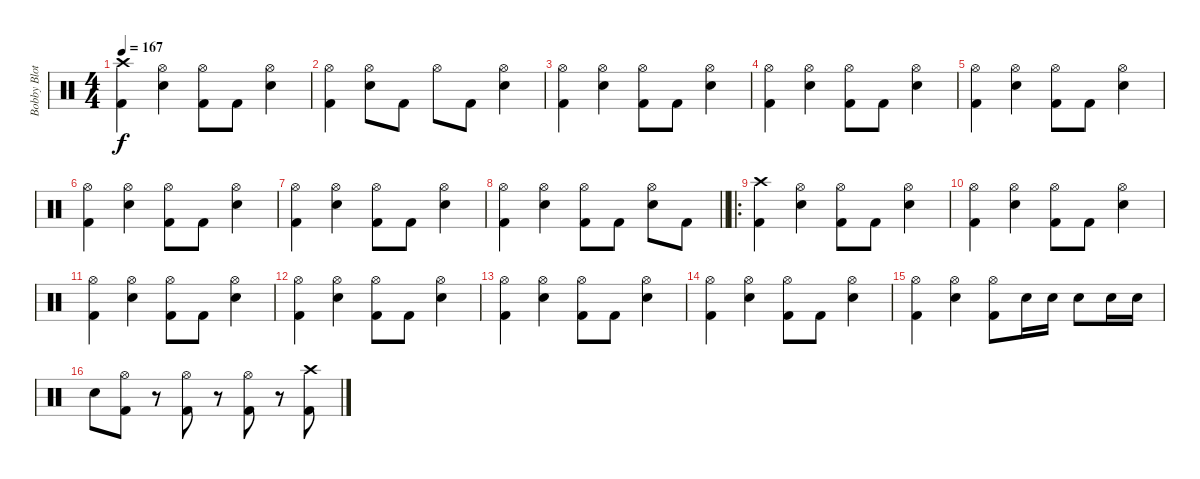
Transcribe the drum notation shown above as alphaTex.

\track ("Bobby Blotzer" "Bobby Blot") {instrument percussion}
\staff {score}
\articulation defaults
\ts (4 4)
\tempo 167
\clef neutral
\ks c
("Crash high (hit)" "Kick (hit) 2").4{dy f} ("Hi-Hat (open)" "Electric Snare (hit)").4 ("Hi-Hat (open)" "Kick (hit) 2").8 "Kick (hit) 2".8 ("Hi-Hat (open)" "Electric Snare (hit)").4 |
("Hi-Hat (open)" "Kick (hit) 2").4 ("Hi-Hat (open)" "Electric Snare (hit)").8 "Kick (hit) 2".8 "Hi-Hat (open)".8 "Kick (hit) 2".8 ("Hi-Hat (open)" "Electric Snare (hit)").4 |
("Hi-Hat (open)" "Kick (hit) 2").4 ("Hi-Hat (open)" "Electric Snare (hit)").4 ("Hi-Hat (open)" "Kick (hit) 2").8 "Kick (hit) 2".8 ("Hi-Hat (open)" "Electric Snare (hit)").4 |
("Hi-Hat (open)" "Kick (hit) 2").4 ("Hi-Hat (open)" "Electric Snare (hit)").4 ("Hi-Hat (open)" "Kick (hit) 2").8 "Kick (hit) 2".8 ("Hi-Hat (open)" "Electric Snare (hit)").4 |
("Hi-Hat (open)" "Kick (hit) 2").4 ("Hi-Hat (open)" "Electric Snare (hit)").4 ("Hi-Hat (open)" "Kick (hit) 2").8 "Kick (hit) 2".8 ("Hi-Hat (open)" "Electric Snare (hit)").4 |
("Hi-Hat (open)" "Kick (hit) 2").4 ("Hi-Hat (open)" "Electric Snare (hit)").4 ("Hi-Hat (open)" "Kick (hit) 2").8 "Kick (hit) 2".8 ("Hi-Hat (open)" "Electric Snare (hit)").4 |
("Hi-Hat (open)" "Kick (hit) 2").4 ("Hi-Hat (open)" "Electric Snare (hit)").4 ("Hi-Hat (open)" "Kick (hit) 2").8 "Kick (hit) 2".8 ("Hi-Hat (open)" "Electric Snare (hit)").4 |
\barLineRight lightlight
("Hi-Hat (open)" "Kick (hit) 2").4 ("Hi-Hat (open)" "Electric Snare (hit)").4 ("Hi-Hat (open)" "Kick (hit) 2").8 "Kick (hit) 2".8 ("Hi-Hat (open)" "Electric Snare (hit)").8 "Kick (hit) 2".8 |
\ro
("Crash high (hit)" "Kick (hit) 2").4 ("Hi-Hat (open)" "Electric Snare (hit)").4 ("Hi-Hat (open)" "Kick (hit) 2").8 "Kick (hit) 2".8 ("Hi-Hat (open)" "Electric Snare (hit)").4 |
("Hi-Hat (open)" "Kick (hit) 2").4 ("Hi-Hat (open)" "Electric Snare (hit)").4 ("Hi-Hat (open)" "Kick (hit) 2").8 "Kick (hit) 2".8 ("Hi-Hat (open)" "Electric Snare (hit)").4 |
("Hi-Hat (open)" "Kick (hit) 2").4 ("Hi-Hat (open)" "Electric Snare (hit)").4 ("Hi-Hat (open)" "Kick (hit) 2").8 "Kick (hit) 2".8 ("Hi-Hat (open)" "Electric Snare (hit)").4 |
("Hi-Hat (open)" "Kick (hit) 2").4 ("Hi-Hat (open)" "Electric Snare (hit)").4 ("Hi-Hat (open)" "Kick (hit) 2").8 "Kick (hit) 2".8 ("Hi-Hat (open)" "Electric Snare (hit)").4 |
("Hi-Hat (open)" "Kick (hit) 2").4 ("Hi-Hat (open)" "Electric Snare (hit)").4 ("Hi-Hat (open)" "Kick (hit) 2").8 "Kick (hit) 2".8 ("Hi-Hat (open)" "Electric Snare (hit)").4 |
("Hi-Hat (open)" "Kick (hit) 2").4 ("Hi-Hat (open)" "Electric Snare (hit)").4 ("Hi-Hat (open)" "Kick (hit) 2").8 "Kick (hit) 2".8 ("Hi-Hat (open)" "Electric Snare (hit)").4 |
("Hi-Hat (open)" "Kick (hit) 2").4 ("Hi-Hat (open)" "Electric Snare (hit)").4 ("Hi-Hat (open)" "Kick (hit) 2").8 "Electric Snare (hit)".16 "Electric Snare (hit)".16 "Electric Snare (hit)".8 "Electric Snare (hit)".16 "Electric Snare (hit)".16 |
"Electric Snare (hit)".8 ("Hi-Hat (open)" "Kick (hit) 2").8 r.8 ("Hi-Hat (open)" "Kick (hit) 2").8 r.8 ("Hi-Hat (open)" "Kick (hit) 2").8 r.8 ("Crash high (hit)" "Kick (hit) 2").8
